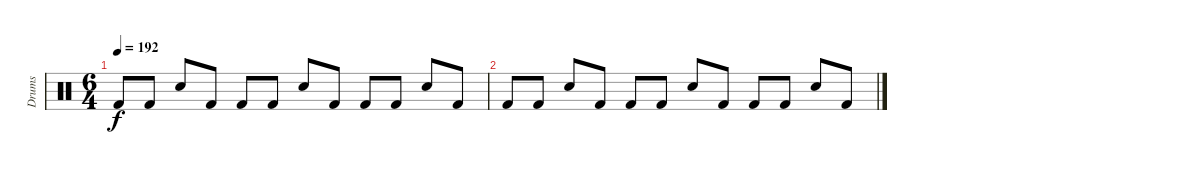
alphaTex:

\track ("Drums" "Drums") {instrument percussion}
\staff {score}
\articulation defaults
\ts (6 4)
\tempo 192
\clef neutral
\ks c "Kick (hit) 2".8{dy f volume 0} "Kick (hit) 2".8 "Snare (hit) 2".8 "Kick (hit) 2".8 "Kick (hit) 2".8 "Kick (hit) 2".8 "Snare (hit) 2".8 "Kick (hit) 2".8 "Kick (hit) 2".8 "Kick (hit) 2".8 "Snare (hit) 2".8 "Kick (hit) 2".8
|
"Kick (hit) 2".8 "Kick (hit) 2".8 "Snare (hit) 2".8 "Kick (hit) 2".8 "Kick (hit) 2".8 "Kick (hit) 2".8 "Snare (hit) 2".8 "Kick (hit) 2".8 "Kick (hit) 2".8 "Kick (hit) 2".8 "Snare (hit) 2".8 "Kick (hit) 2".8
